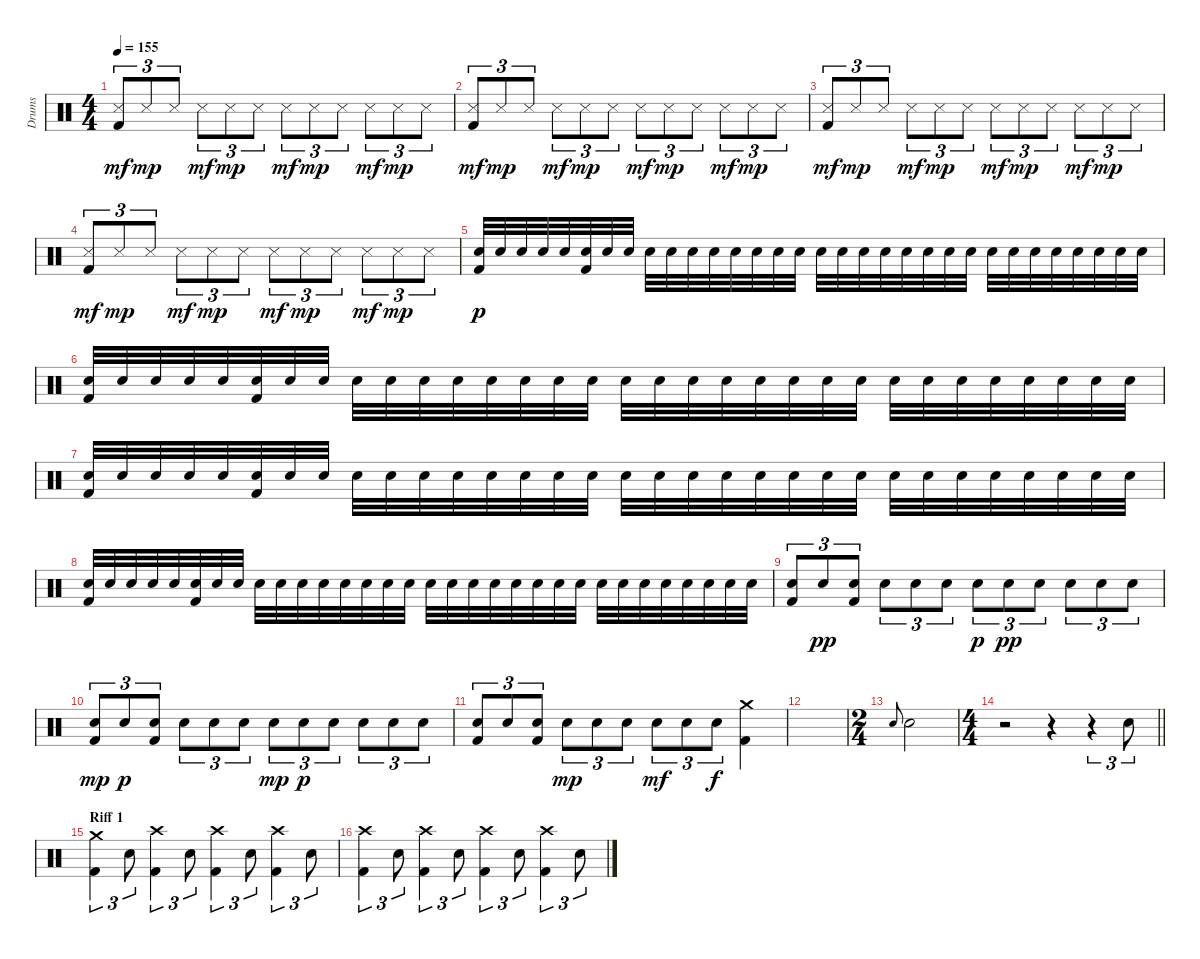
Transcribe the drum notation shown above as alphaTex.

\track ("Drums" "Drums") {instrument percussion}
\staff {score}
\articulation defaults
\ts (4 4)
\tempo 155
\clef neutral
\ks c
("Snare (side stick) 3" "Kick (hit) 2").8{tu (3 2) dy mf} "Snare (side stick) 3".8{tu (3 2) dy mp} "Snare (side stick) 3".8{tu (3 2)} "Snare (side stick) 3".8{tu (3 2) dy mf} "Snare (side stick) 3".8{tu (3 2) dy mp} "Snare (side stick) 3".8{tu (3 2)} "Snare (side stick) 3".8{tu (3 2) dy mf} "Snare (side stick) 3".8{tu (3 2) dy mp} "Snare (side stick) 3".8{tu (3 2)} "Snare (side stick) 3".8{tu (3 2) dy mf} "Snare (side stick) 3".8{tu (3 2) dy mp} "Snare (side stick) 3".8{tu (3 2)} |
("Snare (side stick) 3" "Kick (hit) 2").8{tu (3 2) dy mf} "Snare (side stick) 3".8{tu (3 2) dy mp} "Snare (side stick) 3".8{tu (3 2)} "Snare (side stick) 3".8{tu (3 2) dy mf} "Snare (side stick) 3".8{tu (3 2) dy mp} "Snare (side stick) 3".8{tu (3 2)} "Snare (side stick) 3".8{tu (3 2) dy mf} "Snare (side stick) 3".8{tu (3 2) dy mp} "Snare (side stick) 3".8{tu (3 2)} "Snare (side stick) 3".8{tu (3 2) dy mf} "Snare (side stick) 3".8{tu (3 2) dy mp} "Snare (side stick) 3".8{tu (3 2)} |
("Snare (side stick) 3" "Kick (hit) 2").8{tu (3 2) dy mf} "Snare (side stick) 3".8{tu (3 2) dy mp} "Snare (side stick) 3".8{tu (3 2)} "Snare (side stick) 3".8{tu (3 2) dy mf} "Snare (side stick) 3".8{tu (3 2) dy mp} "Snare (side stick) 3".8{tu (3 2)} "Snare (side stick) 3".8{tu (3 2) dy mf} "Snare (side stick) 3".8{tu (3 2) dy mp} "Snare (side stick) 3".8{tu (3 2)} "Snare (side stick) 3".8{tu (3 2) dy mf} "Snare (side stick) 3".8{tu (3 2) dy mp} "Snare (side stick) 3".8{tu (3 2)} |
("Snare (side stick) 3" "Kick (hit) 2").8{tu (3 2) dy mf} "Snare (side stick) 3".8{tu (3 2) dy mp} "Snare (side stick) 3".8{tu (3 2)} "Snare (side stick) 3".8{tu (3 2) dy mf} "Snare (side stick) 3".8{tu (3 2) dy mp} "Snare (side stick) 3".8{tu (3 2)} "Snare (side stick) 3".8{tu (3 2) dy mf} "Snare (side stick) 3".8{tu (3 2) dy mp} "Snare (side stick) 3".8{tu (3 2)} "Snare (side stick) 3".8{tu (3 2) dy mf} "Snare (side stick) 3".8{tu (3 2) dy mp} "Snare (side stick) 3".8{tu (3 2)} |
("Electric Snare (hit)" "Kick (hit) 2").32{dy p} "Electric Snare (hit)".32 "Electric Snare (hit)".32 "Electric Snare (hit)".32 "Electric Snare (hit)".32 ("Kick (hit) 2" "Electric Snare (hit)").32 "Electric Snare (hit)".32 "Electric Snare (hit)".32 "Electric Snare (hit)".32 "Electric Snare (hit)".32 "Electric Snare (hit)".32 "Electric Snare (hit)".32 "Electric Snare (hit)".32 "Electric Snare (hit)".32 "Electric Snare (hit)".32 "Electric Snare (hit)".32 "Electric Snare (hit)".32 "Electric Snare (hit)".32 "Electric Snare (hit)".32 "Electric Snare (hit)".32 "Electric Snare (hit)".32 "Electric Snare (hit)".32 "Electric Snare (hit)".32 "Electric Snare (hit)".32 "Electric Snare (hit)".32 "Electric Snare (hit)".32 "Electric Snare (hit)".32 "Electric Snare (hit)".32 "Electric Snare (hit)".32 "Electric Snare (hit)".32 "Electric Snare (hit)".32 "Electric Snare (hit)".32 |
("Electric Snare (hit)" "Kick (hit) 2").32 "Electric Snare (hit)".32 "Electric Snare (hit)".32 "Electric Snare (hit)".32 "Electric Snare (hit)".32 ("Kick (hit) 2" "Electric Snare (hit)").32 "Electric Snare (hit)".32 "Electric Snare (hit)".32 "Electric Snare (hit)".32 "Electric Snare (hit)".32 "Electric Snare (hit)".32 "Electric Snare (hit)".32 "Electric Snare (hit)".32 "Electric Snare (hit)".32 "Electric Snare (hit)".32 "Electric Snare (hit)".32 "Electric Snare (hit)".32 "Electric Snare (hit)".32 "Electric Snare (hit)".32 "Electric Snare (hit)".32 "Electric Snare (hit)".32 "Electric Snare (hit)".32 "Electric Snare (hit)".32 "Electric Snare (hit)".32 "Electric Snare (hit)".32 "Electric Snare (hit)".32 "Electric Snare (hit)".32 "Electric Snare (hit)".32 "Electric Snare (hit)".32 "Electric Snare (hit)".32 "Electric Snare (hit)".32 "Electric Snare (hit)".32 |
("Electric Snare (hit)" "Kick (hit) 2").32 "Electric Snare (hit)".32 "Electric Snare (hit)".32 "Electric Snare (hit)".32 "Electric Snare (hit)".32 ("Kick (hit) 2" "Electric Snare (hit)").32 "Electric Snare (hit)".32 "Electric Snare (hit)".32 "Electric Snare (hit)".32 "Electric Snare (hit)".32 "Electric Snare (hit)".32 "Electric Snare (hit)".32 "Electric Snare (hit)".32 "Electric Snare (hit)".32 "Electric Snare (hit)".32 "Electric Snare (hit)".32 "Electric Snare (hit)".32 "Electric Snare (hit)".32 "Electric Snare (hit)".32 "Electric Snare (hit)".32 "Electric Snare (hit)".32 "Electric Snare (hit)".32 "Electric Snare (hit)".32 "Electric Snare (hit)".32 "Electric Snare (hit)".32 "Electric Snare (hit)".32 "Electric Snare (hit)".32 "Electric Snare (hit)".32 "Electric Snare (hit)".32 "Electric Snare (hit)".32 "Electric Snare (hit)".32 "Electric Snare (hit)".32 |
("Electric Snare (hit)" "Kick (hit) 2").32 "Electric Snare (hit)".32 "Electric Snare (hit)".32 "Electric Snare (hit)".32 "Electric Snare (hit)".32 ("Kick (hit) 2" "Electric Snare (hit)").32 "Electric Snare (hit)".32 "Electric Snare (hit)".32 "Electric Snare (hit)".32 "Electric Snare (hit)".32 "Electric Snare (hit)".32 "Electric Snare (hit)".32 "Electric Snare (hit)".32 "Electric Snare (hit)".32 "Electric Snare (hit)".32 "Electric Snare (hit)".32 "Electric Snare (hit)".32 "Electric Snare (hit)".32 "Electric Snare (hit)".32 "Electric Snare (hit)".32 "Electric Snare (hit)".32 "Electric Snare (hit)".32 "Electric Snare (hit)".32 "Electric Snare (hit)".32 "Electric Snare (hit)".32 "Electric Snare (hit)".32 "Electric Snare (hit)".32 "Electric Snare (hit)".32 "Electric Snare (hit)".32 "Electric Snare (hit)".32 "Electric Snare (hit)".32 "Electric Snare (hit)".32 |
("Electric Snare (hit)" "Kick (hit) 2").8{tu (3 2)} "Electric Snare (hit)".8{tu (3 2) dy pp} ("Electric Snare (hit)" "Kick (hit) 2").8{tu (3 2)} "Electric Snare (hit)".8{tu (3 2)} "Electric Snare (hit)".8{tu (3 2)} "Electric Snare (hit)".8{tu (3 2)} "Electric Snare (hit)".8{tu (3 2) dy p} "Electric Snare (hit)".8{tu (3 2) dy pp} "Electric Snare (hit)".8{tu (3 2)} "Electric Snare (hit)".8{tu (3 2)} "Electric Snare (hit)".8{tu (3 2)} "Electric Snare (hit)".8{tu (3 2)} |
("Electric Snare (hit)" "Kick (hit) 2").8{tu (3 2) dy mp} "Electric Snare (hit)".8{tu (3 2) dy p} ("Electric Snare (hit)" "Kick (hit) 2").8{tu (3 2)} "Electric Snare (hit)".8{tu (3 2)} "Electric Snare (hit)".8{tu (3 2)} "Electric Snare (hit)".8{tu (3 2)} "Electric Snare (hit)".8{tu (3 2) dy mp} "Electric Snare (hit)".8{tu (3 2) dy p} "Electric Snare (hit)".8{tu (3 2)} "Electric Snare (hit)".8{tu (3 2)} "Electric Snare (hit)".8{tu (3 2)} "Electric Snare (hit)".8{tu (3 2)} |
("Electric Snare (hit)" "Kick (hit) 2").8{tu (3 2)} "Electric Snare (hit)".8{tu (3 2)} ("Electric Snare (hit)" "Kick (hit) 2").8{tu (3 2)} "Electric Snare (hit)".8{tu (3 2) dy mp} "Electric Snare (hit)".8{tu (3 2)} "Electric Snare (hit)".8{tu (3 2)} "Electric Snare (hit)".8{tu (3 2) dy mf} "Electric Snare (hit)".8{tu (3 2)} "Electric Snare (hit)".8{tu (3 2) dy f} ("Kick (hit) 2" "Crash medium (hit)").4 |
|
\ts (2 4)
"Electric Snare (hit)".8{gr onbeat} "Electric Snare (hit)".2 |
\ts (4 4)
\barLineRight lightlight
r.2 r.4 r.4{tu (3 2)} "Electric Snare (hit)".8{tu (3 2)} |
\section ("" "Riff 1")
("Crash medium (hit)" "Kick (hit) 2").4{tu (3 2)} "Electric Snare (hit)".8{tu (3 2)} ("Kick (hit) 2" "Crash high (hit)").4{tu (3 2)} "Electric Snare (hit)".8{tu (3 2)} ("Kick (hit) 2" "Crash high (hit)").4{tu (3 2)} "Electric Snare (hit)".8{tu (3 2)} ("Kick (hit) 2" "Crash high (hit)").4{tu (3 2)} "Electric Snare (hit)".8{tu (3 2)} |
("Kick (hit) 2" "Crash high (hit)").4{tu (3 2)} "Electric Snare (hit)".8{tu (3 2)} ("Kick (hit) 2" "Crash high (hit)").4{tu (3 2)} "Electric Snare (hit)".8{tu (3 2)} ("Kick (hit) 2" "Crash high (hit)").4{tu (3 2)} "Electric Snare (hit)".8{tu (3 2)} ("Kick (hit) 2" "Crash high (hit)").4{tu (3 2)} "Electric Snare (hit)".8{tu (3 2)}
